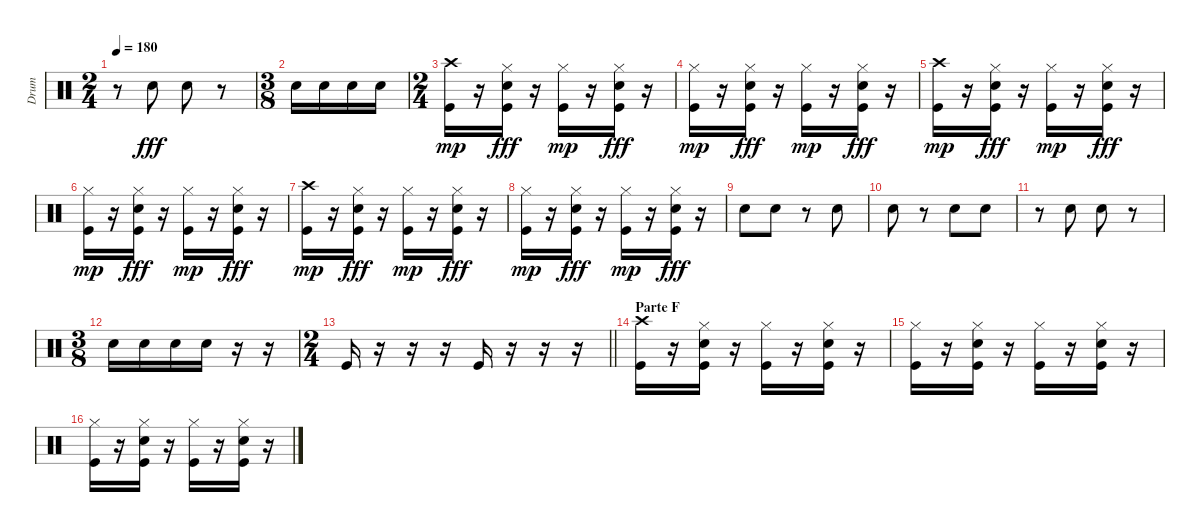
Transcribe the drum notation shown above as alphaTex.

\track ("Drum" "Drum") {instrument percussion}
\staff {score}
\articulation defaults
\ts (2 4)
\tempo 180
\clef neutral
\ks c
r.8{dy fff} "Snare (hit) 2".8 "Snare (hit) 2".8 r.8 |
\ts (3 8)
"Snare (hit) 2".16 "Snare (hit) 2".16 "Snare (hit) 2".16 "Snare (hit) 2".16 |
\ts (2 4)
("Crash high (hit)" "Kick (hit)").16{dy mp} r.16 ("Hi-Hat (closed)" "Snare (hit) 2" "Kick (hit)").16{dy fff} r.16 ("Hi-Hat (closed)" "Kick (hit)").16{dy mp} r.16 ("Hi-Hat (closed)" "Snare (hit) 2" "Kick (hit)").16{dy fff} r.16 |
("Hi-Hat (closed)" "Kick (hit)").16{dy mp} r.16 ("Hi-Hat (closed)" "Snare (hit) 2" "Kick (hit)").16{dy fff} r.16 ("Hi-Hat (closed)" "Kick (hit)").16{dy mp} r.16 ("Hi-Hat (closed)" "Snare (hit) 2" "Kick (hit)").16{dy fff} r.16 |
("Crash high (hit)" "Kick (hit)").16{dy mp} r.16 ("Hi-Hat (closed)" "Snare (hit) 2" "Kick (hit)").16{dy fff} r.16 ("Hi-Hat (closed)" "Kick (hit)").16{dy mp} r.16 ("Hi-Hat (closed)" "Snare (hit) 2" "Kick (hit)").16{dy fff} r.16 |
("Hi-Hat (closed)" "Kick (hit)").16{dy mp} r.16 ("Hi-Hat (closed)" "Snare (hit) 2" "Kick (hit)").16{dy fff} r.16 ("Hi-Hat (closed)" "Kick (hit)").16{dy mp} r.16 ("Hi-Hat (closed)" "Snare (hit) 2" "Kick (hit)").16{dy fff} r.16 |
("Crash high (hit)" "Kick (hit)").16{dy mp} r.16 ("Hi-Hat (closed)" "Snare (hit) 2" "Kick (hit)").16{dy fff} r.16 ("Hi-Hat (closed)" "Kick (hit)").16{dy mp} r.16 ("Hi-Hat (closed)" "Snare (hit) 2" "Kick (hit)").16{dy fff} r.16 |
("Hi-Hat (closed)" "Kick (hit)").16{dy mp} r.16 ("Hi-Hat (closed)" "Snare (hit) 2" "Kick (hit)").16{dy fff} r.16 ("Hi-Hat (closed)" "Kick (hit)").16{dy mp} r.16 ("Hi-Hat (closed)" "Snare (hit) 2" "Kick (hit)").16{dy fff} r.16 |
"Snare (hit) 2".8 "Snare (hit) 2".8 r.8 "Snare (hit) 2".8 |
"Snare (hit) 2".8 r.8 "Snare (hit) 2".8 "Snare (hit) 2".8 |
r.8 "Snare (hit) 2".8 "Snare (hit) 2".8 r.8 |
\ts (3 8)
"Snare (hit) 2".16 "Snare (hit) 2".16 "Snare (hit) 2".16 "Snare (hit) 2".16 r.16 r.16 |
\ts (2 4)
\barLineRight lightlight "Kick (hit)".16
r.16 r.16 r.16 "Kick (hit)".16 r.16 r.16 r.16 |
\section ("" "Parte F")
("Crash high (hit)" "Kick (hit)").16 r.16 ("Hi-Hat (closed)" "Snare (hit) 2" "Kick (hit)").16 r.16 ("Hi-Hat (closed)" "Kick (hit)").16 r.16 ("Hi-Hat (closed)" "Snare (hit) 2" "Kick (hit)").16 r.16 |
("Hi-Hat (closed)" "Kick (hit)").16 r.16 ("Hi-Hat (closed)" "Snare (hit) 2" "Kick (hit)").16 r.16 ("Hi-Hat (closed)" "Kick (hit)").16 r.16 ("Hi-Hat (closed)" "Snare (hit) 2" "Kick (hit)").16 r.16 |
("Hi-Hat (closed)" "Kick (hit)").16 r.16 ("Hi-Hat (closed)" "Snare (hit) 2" "Kick (hit)").16 r.16 ("Hi-Hat (closed)" "Kick (hit)").16 r.16 ("Hi-Hat (closed)" "Snare (hit) 2" "Kick (hit)").16 r.16
